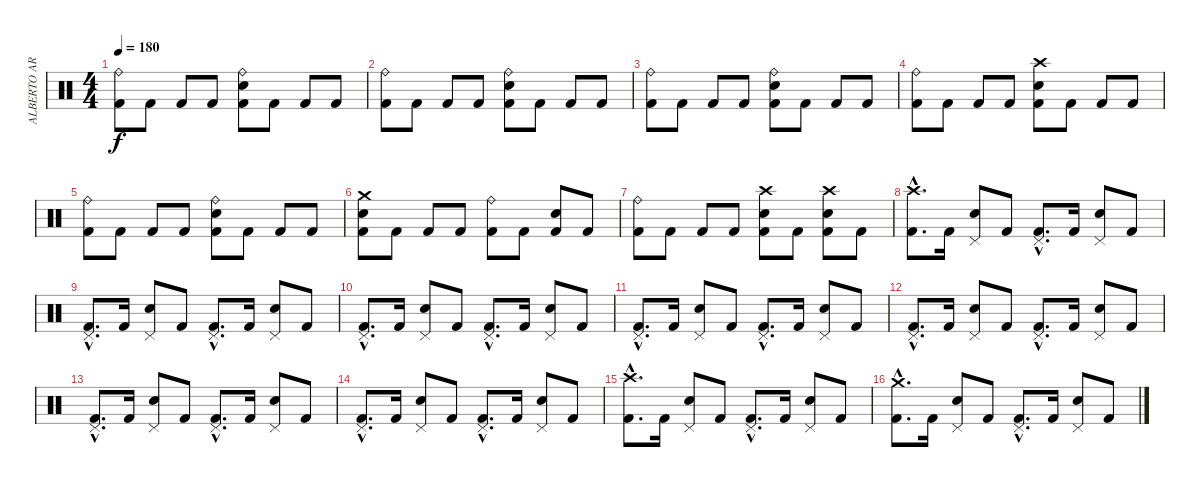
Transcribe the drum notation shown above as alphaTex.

\track ("ALBERTO ARDINES" "ALBERTO AR") {instrument percussion}
\staff {score}
\articulation defaults
\ts (4 4)
\tempo 180
\clef neutral
\ks c
("Ride (bell)" "Kick (hit) 2").8{dy f} "Kick (hit) 2".8 "Kick (hit) 2".8 "Kick (hit) 2".8 ("Ride (bell)" "Electric Snare (hit)" "Kick (hit) 2").8 "Kick (hit) 2".8 "Kick (hit) 2".8 "Kick (hit) 2".8 |
("Ride (bell)" "Kick (hit) 2").8 "Kick (hit) 2".8 "Kick (hit) 2".8 "Kick (hit) 2".8 ("Ride (bell)" "Electric Snare (hit)" "Kick (hit) 2").8 "Kick (hit) 2".8 "Kick (hit) 2".8 "Kick (hit) 2".8 |
("Ride (bell)" "Kick (hit) 2").8 "Kick (hit) 2".8 "Kick (hit) 2".8 "Kick (hit) 2".8 ("Ride (bell)" "Electric Snare (hit)" "Kick (hit) 2").8 "Kick (hit) 2".8 "Kick (hit) 2".8 "Kick (hit) 2".8 |
("Ride (bell)" "Kick (hit) 2").8 "Kick (hit) 2".8 "Kick (hit) 2".8 "Kick (hit) 2".8 ("Crash high (hit)" "Electric Snare (hit)" "Kick (hit) 2").8 "Kick (hit) 2".8 "Kick (hit) 2".8 "Kick (hit) 2".8 |
("Ride (bell)" "Kick (hit) 2").8 "Kick (hit) 2".8 "Kick (hit) 2".8 "Kick (hit) 2".8 ("Ride (bell)" "Electric Snare (hit)" "Kick (hit) 2").8 "Kick (hit) 2".8 "Kick (hit) 2".8 "Kick (hit) 2".8 |
("Crash medium (hit)" "Electric Snare (hit)" "Kick (hit) 2").8 "Kick (hit) 2".8 "Kick (hit) 2".8 "Kick (hit) 2".8 ("Ride (bell)" "Kick (hit) 2").8 "Kick (hit) 2".8 ("Electric Snare (hit)" "Kick (hit) 2").8 "Kick (hit) 2".8 |
("Ride (bell)" "Kick (hit) 2").8 "Kick (hit) 2".8 "Kick (hit) 2".8 "Kick (hit) 2".8 ("Crash high (hit)" "Electric Snare (hit)" "Kick (hit) 2").8 "Kick (hit) 2".8 ("Crash high (hit)" "Electric Snare (hit)" "Kick (hit) 2").8 "Kick (hit) 2".8 |
("Crash high (hit)"{hac} "Kick (hit) 2"{hac}).8{d} "Kick (hit) 2".16 ("Pedal Hi-Hat (hit)" "Electric Snare (hit)").8 "Kick (hit) 2".8 ("Pedal Hi-Hat (hit)"{hac} "Kick (hit) 2"{hac}).8{d} "Kick (hit) 2".16 ("Pedal Hi-Hat (hit)" "Electric Snare (hit)").8 "Kick (hit) 2".8 |
("Pedal Hi-Hat (hit)"{hac} "Kick (hit) 2"{hac}).8{d} "Kick (hit) 2".16 ("Pedal Hi-Hat (hit)" "Electric Snare (hit)").8 "Kick (hit) 2".8 ("Pedal Hi-Hat (hit)"{hac} "Kick (hit) 2"{hac}).8{d} "Kick (hit) 2".16 ("Pedal Hi-Hat (hit)" "Electric Snare (hit)").8 "Kick (hit) 2".8 |
("Pedal Hi-Hat (hit)"{hac} "Kick (hit) 2"{hac}).8{d} "Kick (hit) 2".16 ("Pedal Hi-Hat (hit)" "Electric Snare (hit)").8 "Kick (hit) 2".8 ("Pedal Hi-Hat (hit)"{hac} "Kick (hit) 2"{hac}).8{d} "Kick (hit) 2".16 ("Pedal Hi-Hat (hit)" "Electric Snare (hit)").8 "Kick (hit) 2".8 |
("Pedal Hi-Hat (hit)"{hac} "Kick (hit) 2"{hac}).8{d} "Kick (hit) 2".16 ("Pedal Hi-Hat (hit)" "Electric Snare (hit)").8 "Kick (hit) 2".8 ("Pedal Hi-Hat (hit)"{hac} "Kick (hit) 2"{hac}).8{d} "Kick (hit) 2".16 ("Pedal Hi-Hat (hit)" "Electric Snare (hit)").8 "Kick (hit) 2".8 |
("Pedal Hi-Hat (hit)"{hac} "Kick (hit) 2"{hac}).8{d} "Kick (hit) 2".16 ("Pedal Hi-Hat (hit)" "Electric Snare (hit)").8 "Kick (hit) 2".8 ("Pedal Hi-Hat (hit)"{hac} "Kick (hit) 2"{hac}).8{d} "Kick (hit) 2".16 ("Pedal Hi-Hat (hit)" "Electric Snare (hit)").8 "Kick (hit) 2".8 |
("Pedal Hi-Hat (hit)"{hac} "Kick (hit) 2"{hac}).8{d} "Kick (hit) 2".16 ("Pedal Hi-Hat (hit)" "Electric Snare (hit)").8 "Kick (hit) 2".8 ("Pedal Hi-Hat (hit)"{hac} "Kick (hit) 2"{hac}).8{d} "Kick (hit) 2".16 ("Pedal Hi-Hat (hit)" "Electric Snare (hit)").8 "Kick (hit) 2".8 |
("Pedal Hi-Hat (hit)"{hac} "Kick (hit) 2"{hac}).8{d} "Kick (hit) 2".16 ("Pedal Hi-Hat (hit)" "Electric Snare (hit)").8 "Kick (hit) 2".8 ("Pedal Hi-Hat (hit)"{hac} "Kick (hit) 2"{hac}).8{d} "Kick (hit) 2".16 ("Pedal Hi-Hat (hit)" "Electric Snare (hit)").8 "Kick (hit) 2".8 |
("Crash high (hit)"{hac} "Kick (hit) 2"{hac}).8{d} "Kick (hit) 2".16 ("Pedal Hi-Hat (hit)" "Electric Snare (hit)").8 "Kick (hit) 2".8 ("Pedal Hi-Hat (hit)"{hac} "Kick (hit) 2"{hac}).8{d} "Kick (hit) 2".16 ("Pedal Hi-Hat (hit)" "Electric Snare (hit)").8 "Kick (hit) 2".8 |
("Crash medium (hit)"{hac} "Kick (hit) 2"{hac}).8{d} "Kick (hit) 2".16 ("Pedal Hi-Hat (hit)" "Electric Snare (hit)").8 "Kick (hit) 2".8 ("Pedal Hi-Hat (hit)"{hac} "Kick (hit) 2"{hac}).8{d} "Kick (hit) 2".16 ("Pedal Hi-Hat (hit)" "Electric Snare (hit)").8 "Kick (hit) 2".8
